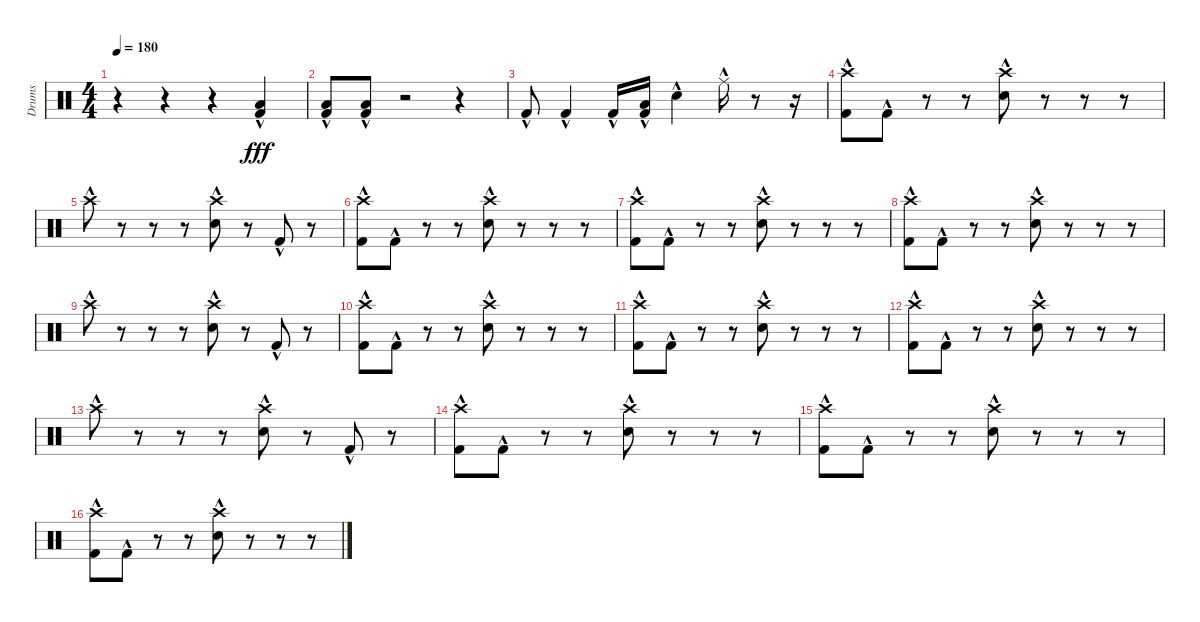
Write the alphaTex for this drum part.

\track ("Drums" "Drums") {instrument percussion}
\staff {score}
\articulation defaults
\ts (4 4)
\tempo 180
\clef neutral
\ks c
r.4{dy fff} r.4 r.4 ("Low Tom (hit)"{hac} "Kick (hit) 2"{hac}).4 |
("Low Tom (hit)"{hac} "Kick (hit) 2"{hac}).8 ("Low Tom (hit)"{hac} "Kick (hit) 2"{hac}).8 r.2 r.4 |
"Kick (hit) 2"{hac}.8 "Kick (hit) 2"{hac}.4 "Kick (hit) 2"{hac}.16 ("Low Tom (hit)"{hac} "Kick (hit) 2"{hac}).16 "Snare (hit) 2"{hac}.4 "Ride (middle)"{hac}.16 r.8 r.16 |
("Crash high (hit)"{hac} "Kick (hit) 2"{hac}).8 "Kick (hit) 2"{hac}.8 r.8 r.8 ("Crash high (hit)"{hac} "Snare (hit) 2"{hac}).8 r.8 r.8 r.8 |
"Crash high (hit)"{hac}.8 r.8 r.8 r.8 ("Crash high (hit)"{hac} "Snare (hit) 2"{hac}).8 r.8 "Kick (hit) 2"{hac}.8 r.8 |
("Crash high (hit)"{hac} "Kick (hit) 2"{hac}).8 "Kick (hit) 2"{hac}.8 r.8 r.8 ("Crash high (hit)"{hac} "Snare (hit) 2"{hac}).8 r.8 r.8 r.8 |
("Crash high (hit)"{hac} "Kick (hit) 2"{hac}).8 "Kick (hit) 2"{hac}.8 r.8 r.8 ("Crash high (hit)"{hac} "Snare (hit) 2"{hac}).8 r.8 r.8 r.8 |
("Crash high (hit)"{hac} "Kick (hit) 2"{hac}).8 "Kick (hit) 2"{hac}.8 r.8 r.8 ("Crash high (hit)"{hac} "Snare (hit) 2"{hac}).8 r.8 r.8 r.8 |
"Crash high (hit)"{hac}.8 r.8 r.8 r.8 ("Crash high (hit)"{hac} "Snare (hit) 2"{hac}).8 r.8 "Kick (hit) 2"{hac}.8 r.8 |
("Crash high (hit)"{hac} "Kick (hit) 2"{hac}).8 "Kick (hit) 2"{hac}.8 r.8 r.8 ("Crash high (hit)"{hac} "Snare (hit) 2"{hac}).8 r.8 r.8 r.8 |
("Crash high (hit)"{hac} "Kick (hit) 2"{hac}).8 "Kick (hit) 2"{hac}.8 r.8 r.8 ("Crash high (hit)"{hac} "Snare (hit) 2"{hac}).8 r.8 r.8 r.8 |
("Crash high (hit)"{hac} "Kick (hit) 2"{hac}).8 "Kick (hit) 2"{hac}.8 r.8 r.8 ("Crash high (hit)"{hac} "Snare (hit) 2"{hac}).8 r.8 r.8 r.8 |
"Crash high (hit)"{hac}.8 r.8 r.8 r.8 ("Crash high (hit)"{hac} "Snare (hit) 2"{hac}).8 r.8 "Kick (hit) 2"{hac}.8 r.8 |
("Crash high (hit)"{hac} "Kick (hit) 2"{hac}).8 "Kick (hit) 2"{hac}.8 r.8 r.8 ("Crash high (hit)"{hac} "Snare (hit) 2"{hac}).8 r.8 r.8 r.8 |
("Crash high (hit)"{hac} "Kick (hit) 2"{hac}).8 "Kick (hit) 2"{hac}.8 r.8 r.8 ("Crash high (hit)"{hac} "Snare (hit) 2"{hac}).8 r.8 r.8 r.8 |
("Crash high (hit)"{hac} "Kick (hit) 2"{hac}).8 "Kick (hit) 2"{hac}.8 r.8 r.8 ("Crash high (hit)"{hac} "Snare (hit) 2"{hac}).8 r.8 r.8 r.8
